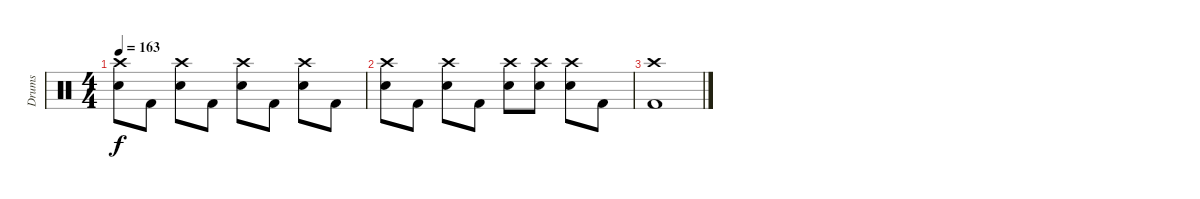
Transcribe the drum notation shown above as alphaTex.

\track ("Drums" "Drums") {instrument percussion}
\staff {score}
\articulation defaults
\ts (4 4)
\tempo 163
\clef neutral
\ks c
("Crash high (hit)" "Electric Snare (hit)").8{dy f} "Kick (hit) 2".8 ("Crash high (hit)" "Electric Snare (hit)").8 "Kick (hit) 2".8 ("Crash high (hit)" "Electric Snare (hit)").8 "Kick (hit) 2".8 ("Crash high (hit)" "Electric Snare (hit)").8 "Kick (hit) 2".8 |
("Crash high (hit)" "Electric Snare (hit)").8 "Kick (hit) 2".8 ("Crash high (hit)" "Electric Snare (hit)").8 "Kick (hit) 2".8 ("Crash high (hit)" "Electric Snare (hit)").8 ("Crash high (hit)" "Electric Snare (hit)").8 ("Crash high (hit)" "Electric Snare (hit)").8 "Kick (hit) 2".8 |
("Crash high (hit)" "Kick (hit) 2").1
